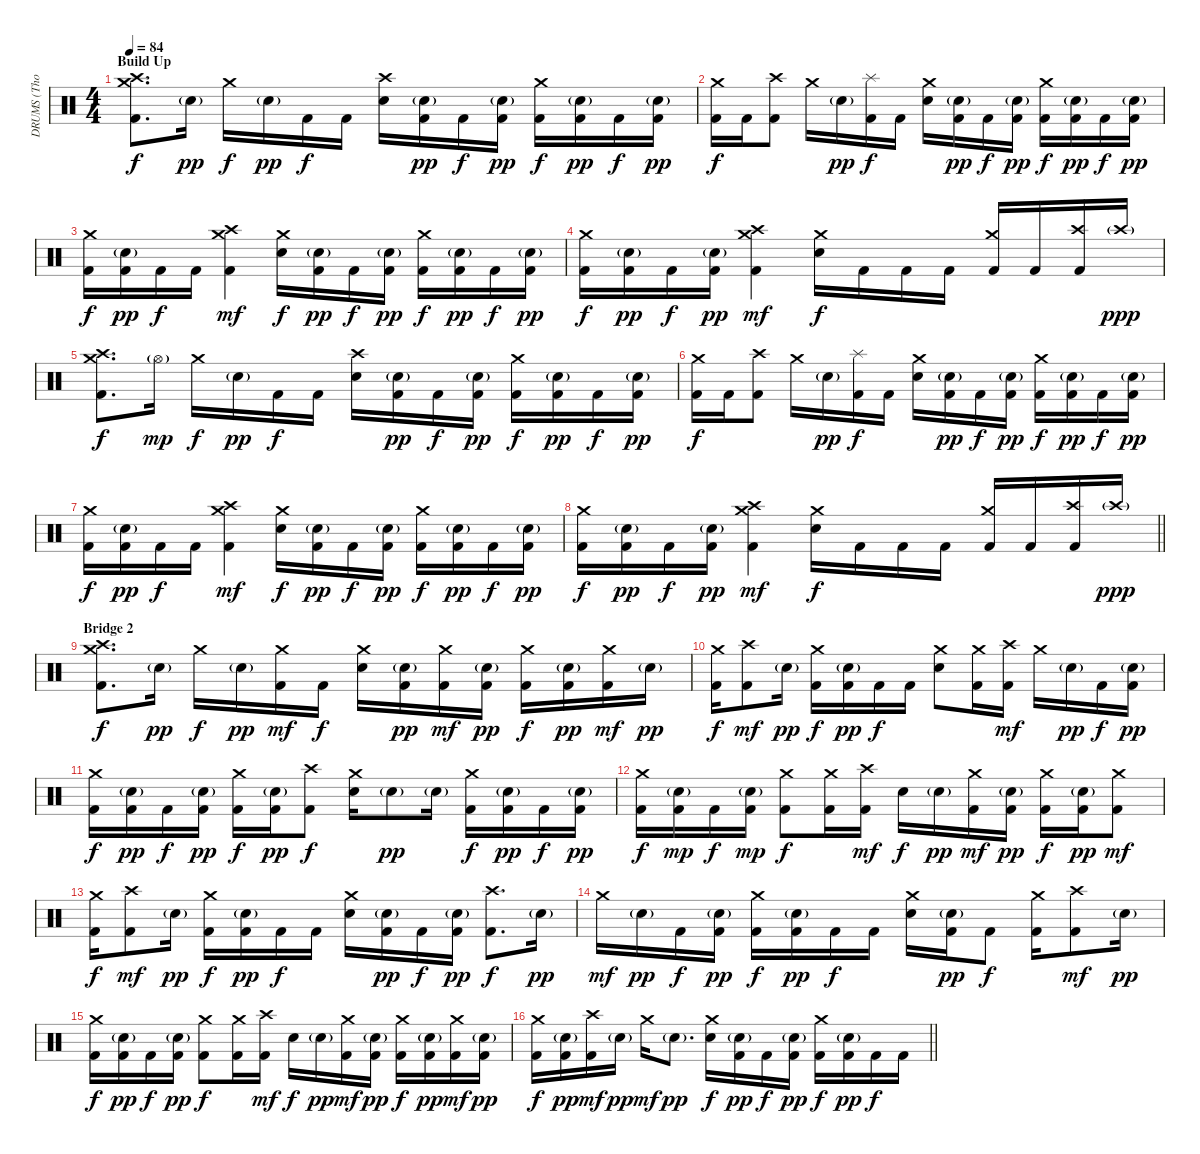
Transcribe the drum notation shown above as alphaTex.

\track ("DRUMS (Thomas Haake)" "DRUMS (Tho") {instrument percussion}
\staff {score}
\articulation defaults
\ts (4 4)
\section ("" "Build Up")
\tempo 84
\clef neutral
\ks c
("Crash medium (hit)" "Crash high (hit)" "Kick (hit) 2").8{d dy f} "Electric Snare (hit)"{g}.16{dy pp} "Crash medium (hit)".16{dy f} "Electric Snare (hit)"{g}.16{dy pp} "Kick (hit) 2".16{dy f} "Kick (hit) 2".16 ("Crash high (hit)" "Electric Snare (hit)").16 ("Electric Snare (hit)"{g} "Kick (hit) 2").16{dy pp} "Kick (hit) 2".16{dy f} ("Electric Snare (hit)"{g} "Kick (hit) 2").16{dy pp} ("Crash medium (hit)" "Kick (hit) 2").16{dy f} ("Electric Snare (hit)"{g} "Kick (hit) 2").16{dy pp} "Kick (hit) 2".16{dy f} ("Electric Snare (hit)"{g} "Kick (hit) 2").16{dy pp} |
("Crash medium (hit)" "Kick (hit) 2").16{dy f} "Kick (hit) 2".16 ("Crash high (hit)" "Kick (hit) 2").8 "Crash medium (hit)".16 "Electric Snare (hit)"{g}.16{dy pp} ("Splash (hit)" "Kick (hit) 2").16{dy f} "Kick (hit) 2".16 ("Crash medium (hit)" "Electric Snare (hit)").16 ("Electric Snare (hit)"{g} "Kick (hit) 2").16{dy pp} "Kick (hit) 2".16{dy f} ("Electric Snare (hit)"{g} "Kick (hit) 2").16{dy pp} ("Crash medium (hit)" "Kick (hit) 2").16{dy f} ("Electric Snare (hit)"{g} "Kick (hit) 2").16{dy pp} "Kick (hit) 2".16{dy f} ("Electric Snare (hit)"{g} "Kick (hit) 2").16{dy pp} |
("Crash medium (hit)" "Kick (hit) 2").16{dy f} ("Electric Snare (hit)"{g} "Kick (hit) 2").16{dy pp} "Kick (hit) 2".16{dy f} "Kick (hit) 2".16 ("Crash high (hit)" "Crash medium (hit)" "Kick (hit) 2").4{dy mf} ("Crash medium (hit)" "Electric Snare (hit)").16{dy f} ("Electric Snare (hit)"{g} "Kick (hit) 2").16{dy pp} "Kick (hit) 2".16{dy f} ("Electric Snare (hit)"{g} "Kick (hit) 2").16{dy pp} ("Crash medium (hit)" "Kick (hit) 2").16{dy f} ("Electric Snare (hit)"{g} "Kick (hit) 2").16{dy pp} "Kick (hit) 2".16{dy f} ("Electric Snare (hit)"{g} "Kick (hit) 2").16{dy pp} |
("Crash medium (hit)" "Kick (hit) 2").16{dy f} ("Electric Snare (hit)"{g} "Kick (hit) 2").16{dy pp} "Kick (hit) 2".16{dy f} ("Electric Snare (hit)"{g} "Kick (hit) 2").16{dy pp} ("Crash medium (hit)" "Crash high (hit)" "Kick (hit) 2").4{dy mf} ("Crash medium (hit)" "Electric Snare (hit)").16{dy f} "Kick (hit) 2".16 "Kick (hit) 2".16 "Kick (hit) 2".16 ("Crash medium (hit)" "Kick (hit) 2").16{beam Up} "Kick (hit) 2".16{beam Up} ("Crash high (hit)" "Kick (hit) 2").16{beam Up} "Crash high (hit)"{g}.16{dy ppp beam Up} |
("Crash medium (hit)" "Crash high (hit)" "Kick (hit) 2").8{d dy f} "Hi-Hat (open)"{g}.16{dy mp} "Crash medium (hit)".16{dy f} "Electric Snare (hit)"{g}.16{dy pp} "Kick (hit) 2".16{dy f} "Kick (hit) 2".16 ("Crash high (hit)" "Electric Snare (hit)").16 ("Electric Snare (hit)"{g} "Kick (hit) 2").16{dy pp} "Kick (hit) 2".16{dy f} ("Electric Snare (hit)"{g} "Kick (hit) 2").16{dy pp} ("Crash medium (hit)" "Kick (hit) 2").16{dy f} ("Electric Snare (hit)"{g} "Kick (hit) 2").16{dy pp} "Kick (hit) 2".16{dy f} ("Electric Snare (hit)"{g} "Kick (hit) 2").16{dy pp} |
("Crash medium (hit)" "Kick (hit) 2").16{dy f} "Kick (hit) 2".16 ("Crash high (hit)" "Kick (hit) 2").8 "Crash medium (hit)".16 "Electric Snare (hit)"{g}.16{dy pp} ("Splash (hit)" "Kick (hit) 2").16{dy f} "Kick (hit) 2".16 ("Crash medium (hit)" "Electric Snare (hit)").16 ("Electric Snare (hit)"{g} "Kick (hit) 2").16{dy pp} "Kick (hit) 2".16{dy f} ("Electric Snare (hit)"{g} "Kick (hit) 2").16{dy pp} ("Crash medium (hit)" "Kick (hit) 2").16{dy f} ("Electric Snare (hit)"{g} "Kick (hit) 2").16{dy pp} "Kick (hit) 2".16{dy f} ("Electric Snare (hit)"{g} "Kick (hit) 2").16{dy pp} |
("Crash medium (hit)" "Kick (hit) 2").16{dy f} ("Electric Snare (hit)"{g} "Kick (hit) 2").16{dy pp} "Kick (hit) 2".16{dy f} "Kick (hit) 2".16 ("Crash high (hit)" "Crash medium (hit)" "Kick (hit) 2").4{dy mf} ("Crash medium (hit)" "Electric Snare (hit)").16{dy f} ("Electric Snare (hit)"{g} "Kick (hit) 2").16{dy pp} "Kick (hit) 2".16{dy f} ("Electric Snare (hit)"{g} "Kick (hit) 2").16{dy pp} ("Crash medium (hit)" "Kick (hit) 2").16{dy f} ("Electric Snare (hit)"{g} "Kick (hit) 2").16{dy pp} "Kick (hit) 2".16{dy f} ("Electric Snare (hit)"{g} "Kick (hit) 2").16{dy pp} |
\barLineRight lightlight
("Crash medium (hit)" "Kick (hit) 2").16{dy f} ("Electric Snare (hit)"{g} "Kick (hit) 2").16{dy pp} "Kick (hit) 2".16{dy f} ("Electric Snare (hit)"{g} "Kick (hit) 2").16{dy pp} ("Crash medium (hit)" "Crash high (hit)" "Kick (hit) 2").4{dy mf} ("Crash medium (hit)" "Electric Snare (hit)").16{dy f} "Kick (hit) 2".16 "Kick (hit) 2".16 "Kick (hit) 2".16 ("Crash medium (hit)" "Kick (hit) 2").16{beam Up} "Kick (hit) 2".16{beam Up} ("Crash high (hit)" "Kick (hit) 2").16{beam Up} "Crash high (hit)"{g}.16{dy ppp beam Up} |
\section ("" "Bridge 2")
("Crash medium (hit)" "Crash high (hit)" "Kick (hit) 2").8{d dy f} "Electric Snare (hit)"{g}.16{dy pp} "Crash medium (hit)".16{dy f} "Electric Snare (hit)"{g}.16{dy pp} ("Crash medium (hit)" "Kick (hit) 2").16{dy mf} "Kick (hit) 2".16{dy f} ("Crash medium (hit)" "Electric Snare (hit)").16 ("Electric Snare (hit)"{g} "Kick (hit) 2").16{dy pp} ("Crash medium (hit)" "Kick (hit) 2").16{dy mf} ("Electric Snare (hit)"{g} "Kick (hit) 2").16{dy pp} ("Crash medium (hit)" "Kick (hit) 2").16{dy f} ("Electric Snare (hit)"{g} "Kick (hit) 2").16{dy pp} ("Crash medium (hit)" "Kick (hit) 2").16{dy mf} "Electric Snare (hit)"{g}.16{dy pp} |
("Crash medium (hit)" "Kick (hit) 2").16{dy f} ("Crash high (hit)" "Kick (hit) 2").8{dy mf} "Electric Snare (hit)"{g}.16{dy pp} ("Crash medium (hit)" "Kick (hit) 2").16{dy f} ("Electric Snare (hit)"{g} "Kick (hit) 2").16{dy pp} "Kick (hit) 2".16{dy f} "Kick (hit) 2".16 ("Crash medium (hit)" "Electric Snare (hit)").8 ("Crash medium (hit)" "Kick (hit) 2").16 ("Crash high (hit)" "Kick (hit) 2").16{dy mf} "Crash medium (hit)".16 "Electric Snare (hit)"{g}.16{dy pp} "Kick (hit) 2".16{dy f} ("Electric Snare (hit)"{g} "Kick (hit) 2").16{dy pp} |
("Crash medium (hit)" "Kick (hit) 2").16{dy f} ("Electric Snare (hit)"{g} "Kick (hit) 2").16{dy pp} "Kick (hit) 2".16{dy f} ("Electric Snare (hit)"{g} "Kick (hit) 2").16{dy pp} ("Crash medium (hit)" "Kick (hit) 2").16{dy f} ("Electric Snare (hit)"{g} "Kick (hit) 2").16{dy pp} ("Crash high (hit)" "Kick (hit) 2").8{dy f} ("Crash medium (hit)" "Electric Snare (hit)").16 "Electric Snare (hit)"{g}.8{dy pp} "Electric Snare (hit)"{g}.16 ("Crash medium (hit)" "Kick (hit) 2").16{dy f} ("Electric Snare (hit)"{g} "Kick (hit) 2").16{dy pp} "Kick (hit) 2".16{dy f} ("Electric Snare (hit)"{g} "Kick (hit) 2").16{dy pp} |
("Crash medium (hit)" "Kick (hit) 2").16{dy f} ("Electric Snare (hit)"{g} "Kick (hit) 2").16{dy mp} "Kick (hit) 2".16{dy f} ("Electric Snare (hit)"{g} "Kick (hit) 2").16{dy mp} ("Crash medium (hit)" "Kick (hit) 2").8{dy f} ("Crash medium (hit)" "Kick (hit) 2").16 ("Crash high (hit)" "Kick (hit) 2").16{dy mf} "Electric Snare (hit)".16{dy f} "Electric Snare (hit)"{g}.16{dy pp} ("Crash medium (hit)" "Kick (hit) 2").16{dy mf} ("Electric Snare (hit)"{g} "Kick (hit) 2").16{dy pp} ("Crash medium (hit)" "Kick (hit) 2").16{dy f} ("Electric Snare (hit)"{g} "Kick (hit) 2").16{dy pp} ("Crash medium (hit)" "Kick (hit) 2").8{dy mf} |
("Crash medium (hit)" "Kick (hit) 2").16{dy f} ("Crash high (hit)" "Kick (hit) 2").8{dy mf} "Electric Snare (hit)"{g}.16{dy pp} ("Crash medium (hit)" "Kick (hit) 2").16{dy f} ("Electric Snare (hit)"{g} "Kick (hit) 2").16{dy pp} "Kick (hit) 2".16{dy f} "Kick (hit) 2".16 ("Crash medium (hit)" "Electric Snare (hit)").16 ("Electric Snare (hit)"{g} "Kick (hit) 2").16{dy pp} "Kick (hit) 2".16{dy f} ("Electric Snare (hit)"{g} "Kick (hit) 2").16{dy pp} ("Crash high (hit)" "Kick (hit) 2").8{d dy f} "Electric Snare (hit)"{g}.16{dy pp} |
"Crash medium (hit)".16{dy mf} "Electric Snare (hit)"{g}.16{dy pp} "Kick (hit) 2".16{dy f} ("Electric Snare (hit)"{g} "Kick (hit) 2").16{dy pp} ("Crash medium (hit)" "Kick (hit) 2").16{dy f} ("Electric Snare (hit)"{g} "Kick (hit) 2").16{dy pp} "Kick (hit) 2".16{dy f} "Kick (hit) 2".16 ("Crash medium (hit)" "Electric Snare (hit)").16 ("Electric Snare (hit)"{g} "Kick (hit) 2").16{dy pp} "Kick (hit) 2".8{dy f} ("Crash medium (hit)" "Kick (hit) 2").16 ("Crash high (hit)" "Kick (hit) 2").8{dy mf} "Electric Snare (hit)"{g}.16{dy pp} |
("Crash medium (hit)" "Kick (hit) 2").16{dy f} ("Electric Snare (hit)"{g} "Kick (hit) 2").16{dy pp} "Kick (hit) 2".16{dy f} ("Electric Snare (hit)"{g} "Kick (hit) 2").16{dy pp} ("Crash medium (hit)" "Kick (hit) 2").8{dy f} ("Crash medium (hit)" "Kick (hit) 2").16 ("Crash high (hit)" "Kick (hit) 2").16{dy mf} "Electric Snare (hit)".16{dy f} "Electric Snare (hit)"{g}.16{dy pp} ("Crash medium (hit)" "Kick (hit) 2").16{dy mf} ("Electric Snare (hit)"{g} "Kick (hit) 2").16{dy pp} ("Crash medium (hit)" "Kick (hit) 2").16{dy f} ("Electric Snare (hit)"{g} "Kick (hit) 2").16{dy pp} ("Crash medium (hit)" "Kick (hit) 2").16{dy mf} ("Electric Snare (hit)"{g} "Kick (hit) 2").16{dy pp} |
\barLineRight lightlight
("Crash medium (hit)" "Kick (hit) 2").16{dy f} ("Electric Snare (hit)"{g} "Kick (hit) 2").16{dy pp} ("Crash high (hit)" "Kick (hit) 2").16{dy mf} "Electric Snare (hit)"{g}.16{dy pp} "Crash medium (hit)".16{dy mf} "Electric Snare (hit)"{g}.8{d dy pp} ("Crash medium (hit)" "Electric Snare (hit)").16{dy f} ("Electric Snare (hit)"{g} "Kick (hit) 2").16{dy pp} "Kick (hit) 2".16{dy f} ("Electric Snare (hit)"{g} "Kick (hit) 2").16{dy pp} ("Crash medium (hit)" "Kick (hit) 2").16{dy f} ("Electric Snare (hit)"{g} "Kick (hit) 2").16{dy pp} "Kick (hit) 2".16{dy f} "Kick (hit) 2".16
